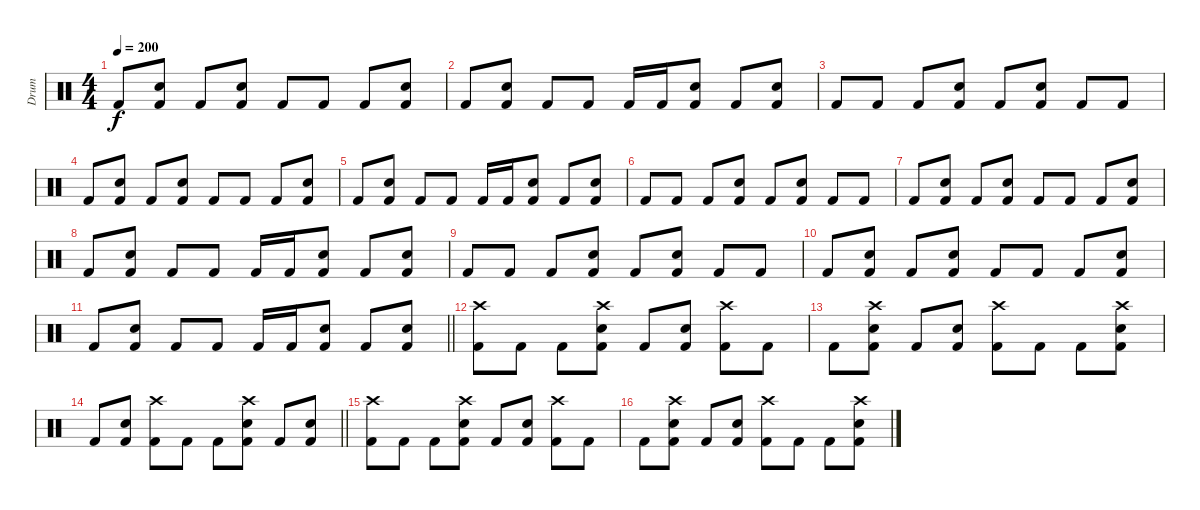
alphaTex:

\track ("Drum" "Drum") {instrument percussion}
\staff {score}
\articulation defaults
\ts (4 4)
\tempo 200
\clef neutral
\ks c "Kick (hit) 2".8{dy f}
("Snare (hit) 2" "Kick (hit) 2").8 "Kick (hit) 2".8 ("Snare (hit) 2" "Kick (hit) 2").8 "Kick (hit) 2".8 "Kick (hit) 2".8 "Kick (hit) 2".8 ("Snare (hit) 2" "Kick (hit) 2").8 |
"Kick (hit) 2".8 ("Snare (hit) 2" "Kick (hit) 2").8 "Kick (hit) 2".8 "Kick (hit) 2".8 "Kick (hit) 2".16 "Kick (hit) 2".16 ("Snare (hit) 2" "Kick (hit) 2").8 "Kick (hit) 2".8 ("Snare (hit) 2" "Kick (hit) 2").8 |
"Kick (hit) 2".8 "Kick (hit) 2".8 "Kick (hit) 2".8 ("Snare (hit) 2" "Kick (hit) 2").8 "Kick (hit) 2".8 ("Snare (hit) 2" "Kick (hit) 2").8 "Kick (hit) 2".8 "Kick (hit) 2".8 |
"Kick (hit) 2".8 ("Snare (hit) 2" "Kick (hit) 2").8 "Kick (hit) 2".8 ("Snare (hit) 2" "Kick (hit) 2").8 "Kick (hit) 2".8 "Kick (hit) 2".8 "Kick (hit) 2".8 ("Snare (hit) 2" "Kick (hit) 2").8 |
"Kick (hit) 2".8 ("Snare (hit) 2" "Kick (hit) 2").8 "Kick (hit) 2".8 "Kick (hit) 2".8 "Kick (hit) 2".16 "Kick (hit) 2".16 ("Snare (hit) 2" "Kick (hit) 2").8 "Kick (hit) 2".8 ("Snare (hit) 2" "Kick (hit) 2").8 |
"Kick (hit) 2".8 "Kick (hit) 2".8 "Kick (hit) 2".8 ("Snare (hit) 2" "Kick (hit) 2").8 "Kick (hit) 2".8 ("Snare (hit) 2" "Kick (hit) 2").8 "Kick (hit) 2".8 "Kick (hit) 2".8 |
"Kick (hit) 2".8 ("Snare (hit) 2" "Kick (hit) 2").8 "Kick (hit) 2".8 ("Snare (hit) 2" "Kick (hit) 2").8 "Kick (hit) 2".8 "Kick (hit) 2".8 "Kick (hit) 2".8 ("Snare (hit) 2" "Kick (hit) 2").8 |
"Kick (hit) 2".8 ("Snare (hit) 2" "Kick (hit) 2").8 "Kick (hit) 2".8 "Kick (hit) 2".8 "Kick (hit) 2".16 "Kick (hit) 2".16 ("Snare (hit) 2" "Kick (hit) 2").8 "Kick (hit) 2".8 ("Snare (hit) 2" "Kick (hit) 2").8 |
"Kick (hit) 2".8 "Kick (hit) 2".8 "Kick (hit) 2".8 ("Snare (hit) 2" "Kick (hit) 2").8 "Kick (hit) 2".8 ("Snare (hit) 2" "Kick (hit) 2").8 "Kick (hit) 2".8 "Kick (hit) 2".8 |
"Kick (hit) 2".8 ("Snare (hit) 2" "Kick (hit) 2").8 "Kick (hit) 2".8 ("Snare (hit) 2" "Kick (hit) 2").8 "Kick (hit) 2".8 "Kick (hit) 2".8 "Kick (hit) 2".8 ("Snare (hit) 2" "Kick (hit) 2").8 |
\barLineRight lightlight "Kick (hit) 2".8
("Snare (hit) 2" "Kick (hit) 2").8 "Kick (hit) 2".8 "Kick (hit) 2".8 "Kick (hit) 2".16 "Kick (hit) 2".16 ("Snare (hit) 2" "Kick (hit) 2").8 "Kick (hit) 2".8 ("Snare (hit) 2" "Kick (hit) 2").8 |
\section ("" " ")
("Crash high (hit)" "Kick (hit) 2").8 "Kick (hit) 2".8 "Kick (hit) 2".8 ("Snare (hit) 2" "Crash high (hit)" "Kick (hit) 2").8 "Kick (hit) 2".8 ("Snare (hit) 2" "Kick (hit) 2").8 ("Crash high (hit)" "Kick (hit) 2").8 "Kick (hit) 2".8 |
"Kick (hit) 2".8 ("Snare (hit) 2" "Crash high (hit)" "Kick (hit) 2").8 "Kick (hit) 2".8 ("Snare (hit) 2" "Kick (hit) 2").8 ("Crash high (hit)" "Kick (hit) 2").8 "Kick (hit) 2".8 "Kick (hit) 2".8 ("Snare (hit) 2" "Crash high (hit)" "Kick (hit) 2").8 |
\barLineRight lightlight "Kick (hit) 2".8
("Snare (hit) 2" "Kick (hit) 2").8 ("Crash high (hit)" "Kick (hit) 2").8 "Kick (hit) 2".8 "Kick (hit) 2".8 ("Snare (hit) 2" "Crash high (hit)" "Kick (hit) 2").8 "Kick (hit) 2".8 ("Snare (hit) 2" "Kick (hit) 2").8 |
("Crash high (hit)" "Kick (hit) 2").8 "Kick (hit) 2".8 "Kick (hit) 2".8 ("Snare (hit) 2" "Crash high (hit)" "Kick (hit) 2").8 "Kick (hit) 2".8 ("Snare (hit) 2" "Kick (hit) 2").8 ("Crash high (hit)" "Kick (hit) 2").8 "Kick (hit) 2".8 |
"Kick (hit) 2".8 ("Snare (hit) 2" "Crash high (hit)" "Kick (hit) 2").8 "Kick (hit) 2".8 ("Snare (hit) 2" "Kick (hit) 2").8 ("Crash high (hit)" "Kick (hit) 2").8 "Kick (hit) 2".8 "Kick (hit) 2".8 ("Snare (hit) 2" "Crash high (hit)" "Kick (hit) 2").8
